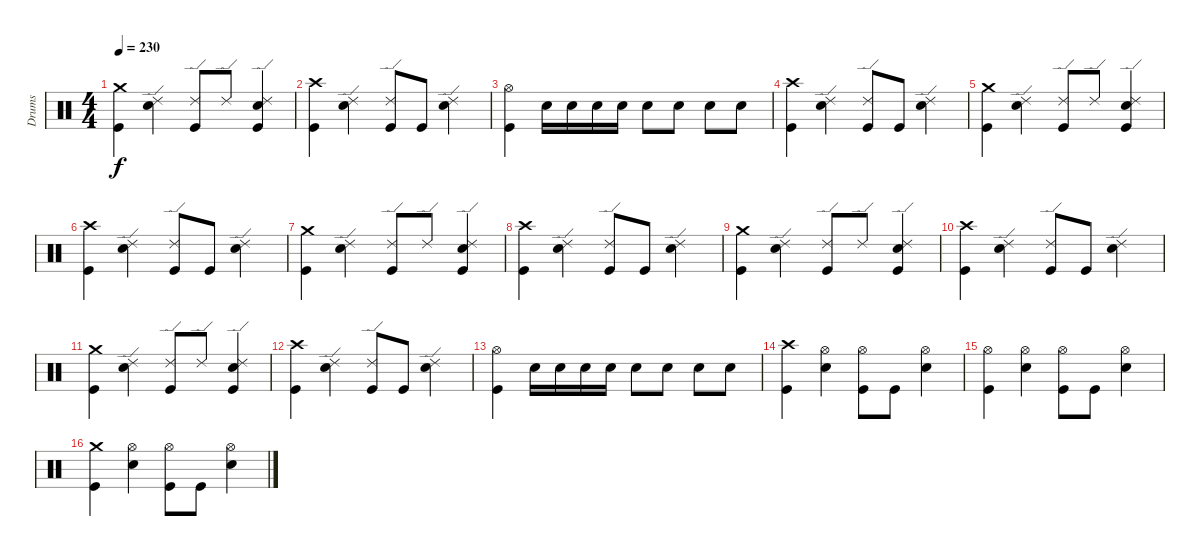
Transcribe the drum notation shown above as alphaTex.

\track ("Drums" "Drums") {instrument percussion}
\staff {score}
\articulation defaults
\ts (4 4)
\tempo 230
\clef neutral
\ks c
("Crash medium (hit)" "Kick (hit)").4{dy f} ("Ride (edge) 2" "Snare (hit) 2").4 ("Ride (edge) 2" "Kick (hit)").8 "Ride (edge) 2".8 ("Ride (edge) 2" "Snare (hit) 2" "Kick (hit)").4 |
("Crash high (hit)" "Kick (hit)").4 ("Ride (edge) 2" "Snare (hit) 2").4 ("Ride (edge) 2" "Kick (hit)").8 "Kick (hit)".8 ("Ride (edge) 2" "Snare (hit) 2").4 |
("Hi-Hat (open)" "Kick (hit)").4 "Snare (hit) 2".16 "Snare (hit) 2".16 "Snare (hit) 2".16 "Snare (hit) 2".16 "Snare (hit) 2".8 "Snare (hit) 2".8 "Snare (hit) 2".8 "Snare (hit) 2".8 |
("Crash high (hit)" "Kick (hit)").4 ("Ride (edge) 2" "Snare (hit) 2").4 ("Ride (edge) 2" "Kick (hit)").8 "Kick (hit)".8 ("Ride (edge) 2" "Snare (hit) 2").4 |
("Crash medium (hit)" "Kick (hit)").4 ("Ride (edge) 2" "Snare (hit) 2").4 ("Ride (edge) 2" "Kick (hit)").8 "Ride (edge) 2".8 ("Ride (edge) 2" "Snare (hit) 2" "Kick (hit)").4 |
("Crash high (hit)" "Kick (hit)").4 ("Ride (edge) 2" "Snare (hit) 2").4 ("Ride (edge) 2" "Kick (hit)").8 "Kick (hit)".8 ("Ride (edge) 2" "Snare (hit) 2").4 |
("Crash medium (hit)" "Kick (hit)").4 ("Ride (edge) 2" "Snare (hit) 2").4 ("Ride (edge) 2" "Kick (hit)").8 "Ride (edge) 2".8 ("Ride (edge) 2" "Snare (hit) 2" "Kick (hit)").4 |
("Crash high (hit)" "Kick (hit)").4 ("Ride (edge) 2" "Snare (hit) 2").4 ("Ride (edge) 2" "Kick (hit)").8 "Kick (hit)".8 ("Ride (edge) 2" "Snare (hit) 2").4 |
("Crash medium (hit)" "Kick (hit)").4 ("Ride (edge) 2" "Snare (hit) 2").4 ("Ride (edge) 2" "Kick (hit)").8 "Ride (edge) 2".8 ("Ride (edge) 2" "Snare (hit) 2" "Kick (hit)").4 |
("Crash high (hit)" "Kick (hit)").4 ("Ride (edge) 2" "Snare (hit) 2").4 ("Ride (edge) 2" "Kick (hit)").8 "Kick (hit)".8 ("Ride (edge) 2" "Snare (hit) 2").4 |
("Crash medium (hit)" "Kick (hit)").4 ("Ride (edge) 2" "Snare (hit) 2").4 ("Ride (edge) 2" "Kick (hit)").8 "Ride (edge) 2".8 ("Ride (edge) 2" "Snare (hit) 2" "Kick (hit)").4 |
("Crash high (hit)" "Kick (hit)").4 ("Ride (edge) 2" "Snare (hit) 2").4 ("Ride (edge) 2" "Kick (hit)").8 "Kick (hit)".8 ("Ride (edge) 2" "Snare (hit) 2").4 |
("Hi-Hat (open)" "Kick (hit)").4 "Snare (hit) 2".16 "Snare (hit) 2".16 "Snare (hit) 2".16 "Snare (hit) 2".16 "Snare (hit) 2".8 "Snare (hit) 2".8 "Snare (hit) 2".8 "Snare (hit) 2".8 |
("Crash high (hit)" "Kick (hit)").4 ("Hi-Hat (open)" "Snare (hit) 2").4 ("Hi-Hat (open)" "Kick (hit)").8 "Kick (hit)".8 ("Hi-Hat (open)" "Snare (hit) 2").4 |
("Hi-Hat (open)" "Kick (hit)").4 ("Hi-Hat (open)" "Snare (hit) 2").4 ("Hi-Hat (open)" "Kick (hit)").8 "Kick (hit)".8 ("Hi-Hat (open)" "Snare (hit) 2").4 |
("Crash medium (hit)" "Kick (hit)").4 ("Hi-Hat (open)" "Snare (hit) 2").4 ("Hi-Hat (open)" "Kick (hit)").8 "Kick (hit)".8 ("Hi-Hat (open)" "Snare (hit) 2").4
